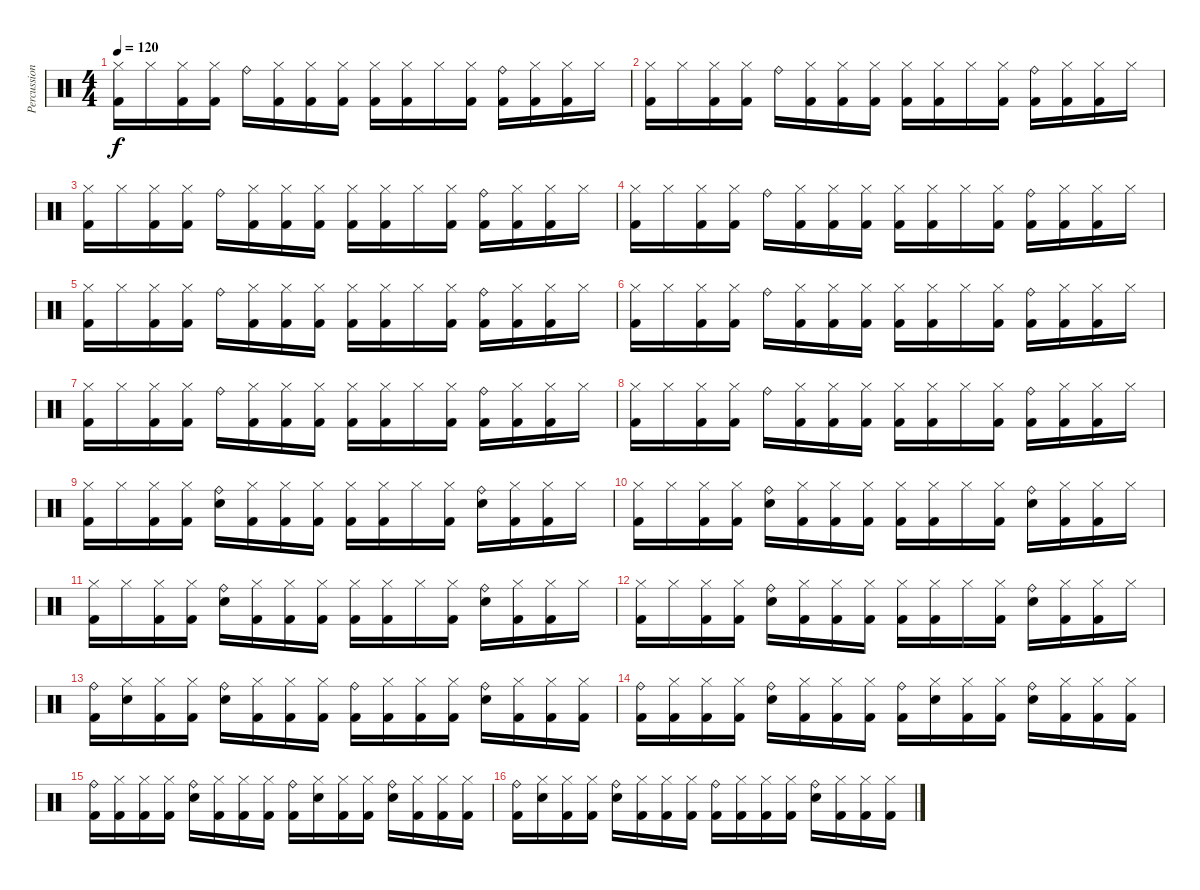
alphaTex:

\track ("Percussions" "Percussion") {instrument percussion}
\staff {score}
\articulation defaults
\ts (4 4)
\tempo 120
\clef neutral
\ks c
("Hi-Hat (closed)" "Kick (hit) 2").16{dy f} "Hi-Hat (closed)".16 ("Hi-Hat (closed)" "Kick (hit) 2").16 ("Hi-Hat (closed)" "Kick (hit) 2").16 "Ride (bell)".16 ("Hi-Hat (closed)" "Kick (hit) 2").16 ("Hi-Hat (closed)" "Kick (hit) 2").16 ("Hi-Hat (closed)" "Kick (hit) 2").16 ("Hi-Hat (closed)" "Kick (hit) 2").16 ("Hi-Hat (closed)" "Kick (hit) 2").16 "Hi-Hat (closed)".16 ("Hi-Hat (closed)" "Kick (hit) 2").16 ("Ride (bell)" "Kick (hit) 2").16 ("Hi-Hat (closed)" "Kick (hit) 2").16 ("Hi-Hat (closed)" "Kick (hit) 2").16 "Hi-Hat (closed)".16 |
("Hi-Hat (closed)" "Kick (hit) 2").16 "Hi-Hat (closed)".16 ("Hi-Hat (closed)" "Kick (hit) 2").16 ("Hi-Hat (closed)" "Kick (hit) 2").16 "Ride (bell)".16 ("Hi-Hat (closed)" "Kick (hit) 2").16 ("Hi-Hat (closed)" "Kick (hit) 2").16 ("Hi-Hat (closed)" "Kick (hit) 2").16 ("Hi-Hat (closed)" "Kick (hit) 2").16 ("Hi-Hat (closed)" "Kick (hit) 2").16 "Hi-Hat (closed)".16 ("Hi-Hat (closed)" "Kick (hit) 2").16 ("Ride (bell)" "Kick (hit) 2").16 ("Hi-Hat (closed)" "Kick (hit) 2").16 ("Hi-Hat (closed)" "Kick (hit) 2").16 "Hi-Hat (closed)".16 |
("Hi-Hat (closed)" "Kick (hit) 2").16 "Hi-Hat (closed)".16 ("Hi-Hat (closed)" "Kick (hit) 2").16 ("Hi-Hat (closed)" "Kick (hit) 2").16 "Ride (bell)".16 ("Hi-Hat (closed)" "Kick (hit) 2").16 ("Hi-Hat (closed)" "Kick (hit) 2").16 ("Hi-Hat (closed)" "Kick (hit) 2").16 ("Hi-Hat (closed)" "Kick (hit) 2").16 ("Hi-Hat (closed)" "Kick (hit) 2").16 "Hi-Hat (closed)".16 ("Hi-Hat (closed)" "Kick (hit) 2").16 ("Ride (bell)" "Kick (hit) 2").16 ("Hi-Hat (closed)" "Kick (hit) 2").16 ("Hi-Hat (closed)" "Kick (hit) 2").16 "Hi-Hat (closed)".16 |
("Hi-Hat (closed)" "Kick (hit) 2").16 "Hi-Hat (closed)".16 ("Hi-Hat (closed)" "Kick (hit) 2").16 ("Hi-Hat (closed)" "Kick (hit) 2").16 "Ride (bell)".16 ("Hi-Hat (closed)" "Kick (hit) 2").16 ("Hi-Hat (closed)" "Kick (hit) 2").16 ("Hi-Hat (closed)" "Kick (hit) 2").16 ("Hi-Hat (closed)" "Kick (hit) 2").16 ("Hi-Hat (closed)" "Kick (hit) 2").16 "Hi-Hat (closed)".16 ("Hi-Hat (closed)" "Kick (hit) 2").16 ("Ride (bell)" "Kick (hit) 2").16 ("Hi-Hat (closed)" "Kick (hit) 2").16 ("Hi-Hat (closed)" "Kick (hit) 2").16 "Hi-Hat (closed)".16 |
("Hi-Hat (closed)" "Kick (hit) 2").16 "Hi-Hat (closed)".16 ("Hi-Hat (closed)" "Kick (hit) 2").16 ("Hi-Hat (closed)" "Kick (hit) 2").16 "Ride (bell)".16 ("Hi-Hat (closed)" "Kick (hit) 2").16 ("Hi-Hat (closed)" "Kick (hit) 2").16 ("Hi-Hat (closed)" "Kick (hit) 2").16 ("Hi-Hat (closed)" "Kick (hit) 2").16 ("Hi-Hat (closed)" "Kick (hit) 2").16 "Hi-Hat (closed)".16 ("Hi-Hat (closed)" "Kick (hit) 2").16 ("Ride (bell)" "Kick (hit) 2").16 ("Hi-Hat (closed)" "Kick (hit) 2").16 ("Hi-Hat (closed)" "Kick (hit) 2").16 "Hi-Hat (closed)".16 |
("Hi-Hat (closed)" "Kick (hit) 2").16 "Hi-Hat (closed)".16 ("Hi-Hat (closed)" "Kick (hit) 2").16 ("Hi-Hat (closed)" "Kick (hit) 2").16 "Ride (bell)".16 ("Hi-Hat (closed)" "Kick (hit) 2").16 ("Hi-Hat (closed)" "Kick (hit) 2").16 ("Hi-Hat (closed)" "Kick (hit) 2").16 ("Hi-Hat (closed)" "Kick (hit) 2").16 ("Hi-Hat (closed)" "Kick (hit) 2").16 "Hi-Hat (closed)".16 ("Hi-Hat (closed)" "Kick (hit) 2").16 ("Ride (bell)" "Kick (hit) 2").16 ("Hi-Hat (closed)" "Kick (hit) 2").16 ("Hi-Hat (closed)" "Kick (hit) 2").16 "Hi-Hat (closed)".16 |
("Hi-Hat (closed)" "Kick (hit) 2").16 "Hi-Hat (closed)".16 ("Hi-Hat (closed)" "Kick (hit) 2").16 ("Hi-Hat (closed)" "Kick (hit) 2").16 "Ride (bell)".16 ("Hi-Hat (closed)" "Kick (hit) 2").16 ("Hi-Hat (closed)" "Kick (hit) 2").16 ("Hi-Hat (closed)" "Kick (hit) 2").16 ("Hi-Hat (closed)" "Kick (hit) 2").16 ("Hi-Hat (closed)" "Kick (hit) 2").16 "Hi-Hat (closed)".16 ("Hi-Hat (closed)" "Kick (hit) 2").16 ("Ride (bell)" "Kick (hit) 2").16 ("Hi-Hat (closed)" "Kick (hit) 2").16 ("Hi-Hat (closed)" "Kick (hit) 2").16 "Hi-Hat (closed)".16 |
("Hi-Hat (closed)" "Kick (hit) 2").16 "Hi-Hat (closed)".16 ("Hi-Hat (closed)" "Kick (hit) 2").16 ("Hi-Hat (closed)" "Kick (hit) 2").16 "Ride (bell)".16 ("Hi-Hat (closed)" "Kick (hit) 2").16 ("Hi-Hat (closed)" "Kick (hit) 2").16 ("Hi-Hat (closed)" "Kick (hit) 2").16 ("Hi-Hat (closed)" "Kick (hit) 2").16 ("Hi-Hat (closed)" "Kick (hit) 2").16 "Hi-Hat (closed)".16 ("Hi-Hat (closed)" "Kick (hit) 2").16 ("Ride (bell)" "Kick (hit) 2").16 ("Hi-Hat (closed)" "Kick (hit) 2").16 ("Hi-Hat (closed)" "Kick (hit) 2").16 "Hi-Hat (closed)".16 |
("Hi-Hat (closed)" "Kick (hit) 2").16 "Hi-Hat (closed)".16 ("Hi-Hat (closed)" "Kick (hit) 2").16 ("Hi-Hat (closed)" "Kick (hit) 2").16 ("Ride (bell)" "Electric Snare (hit)").16 ("Hi-Hat (closed)" "Kick (hit) 2").16 ("Hi-Hat (closed)" "Kick (hit) 2").16 ("Hi-Hat (closed)" "Kick (hit) 2").16 ("Hi-Hat (closed)" "Kick (hit) 2").16 ("Hi-Hat (closed)" "Kick (hit) 2").16 "Hi-Hat (closed)".16 ("Hi-Hat (closed)" "Kick (hit) 2").16 ("Ride (bell)" "Electric Snare (hit)").16 ("Hi-Hat (closed)" "Kick (hit) 2").16 ("Hi-Hat (closed)" "Kick (hit) 2").16 "Hi-Hat (closed)".16 |
("Hi-Hat (closed)" "Kick (hit) 2").16 "Hi-Hat (closed)".16 ("Hi-Hat (closed)" "Kick (hit) 2").16 ("Hi-Hat (closed)" "Kick (hit) 2").16 ("Ride (bell)" "Electric Snare (hit)").16 ("Hi-Hat (closed)" "Kick (hit) 2").16 ("Hi-Hat (closed)" "Kick (hit) 2").16 ("Hi-Hat (closed)" "Kick (hit) 2").16 ("Hi-Hat (closed)" "Kick (hit) 2").16 ("Hi-Hat (closed)" "Kick (hit) 2").16 "Hi-Hat (closed)".16 ("Hi-Hat (closed)" "Kick (hit) 2").16 ("Ride (bell)" "Electric Snare (hit)").16 ("Hi-Hat (closed)" "Kick (hit) 2").16 ("Hi-Hat (closed)" "Kick (hit) 2").16 "Hi-Hat (closed)".16 |
("Hi-Hat (closed)" "Kick (hit) 2").16 "Hi-Hat (closed)".16 ("Hi-Hat (closed)" "Kick (hit) 2").16 ("Hi-Hat (closed)" "Kick (hit) 2").16 ("Ride (bell)" "Electric Snare (hit)").16 ("Hi-Hat (closed)" "Kick (hit) 2").16 ("Hi-Hat (closed)" "Kick (hit) 2").16 ("Hi-Hat (closed)" "Kick (hit) 2").16 ("Hi-Hat (closed)" "Kick (hit) 2").16 ("Hi-Hat (closed)" "Kick (hit) 2").16 "Hi-Hat (closed)".16 ("Hi-Hat (closed)" "Kick (hit) 2").16 ("Ride (bell)" "Electric Snare (hit)").16 ("Hi-Hat (closed)" "Kick (hit) 2").16 ("Hi-Hat (closed)" "Kick (hit) 2").16 "Hi-Hat (closed)".16 |
("Hi-Hat (closed)" "Kick (hit) 2").16 "Hi-Hat (closed)".16 ("Hi-Hat (closed)" "Kick (hit) 2").16 ("Hi-Hat (closed)" "Kick (hit) 2").16 ("Ride (bell)" "Electric Snare (hit)").16 ("Hi-Hat (closed)" "Kick (hit) 2").16 ("Hi-Hat (closed)" "Kick (hit) 2").16 ("Hi-Hat (closed)" "Kick (hit) 2").16 ("Hi-Hat (closed)" "Kick (hit) 2").16 ("Hi-Hat (closed)" "Kick (hit) 2").16 "Hi-Hat (closed)".16 ("Hi-Hat (closed)" "Kick (hit) 2").16 ("Ride (bell)" "Electric Snare (hit)").16 ("Hi-Hat (closed)" "Kick (hit) 2").16 ("Hi-Hat (closed)" "Kick (hit) 2").16 "Hi-Hat (closed)".16 |
("Ride (bell)" "Kick (hit) 2").16 ("Hi-Hat (closed)" "Electric Snare (hit)").16 ("Hi-Hat (closed)" "Kick (hit) 2").16 ("Hi-Hat (closed)" "Kick (hit) 2").16 ("Ride (bell)" "Electric Snare (hit)").16 ("Hi-Hat (closed)" "Kick (hit) 2").16 ("Hi-Hat (closed)" "Kick (hit) 2").16 ("Hi-Hat (closed)" "Kick (hit) 2").16 ("Ride (bell)" "Kick (hit) 2").16 ("Hi-Hat (closed)" "Kick (hit) 2").16 ("Hi-Hat (closed)" "Kick (hit) 2").16 ("Hi-Hat (closed)" "Kick (hit) 2").16 ("Ride (bell)" "Electric Snare (hit)").16 ("Hi-Hat (closed)" "Kick (hit) 2").16 ("Hi-Hat (closed)" "Kick (hit) 2").16 ("Hi-Hat (closed)" "Kick (hit) 2").16 |
("Ride (bell)" "Kick (hit) 2").16 ("Hi-Hat (closed)" "Kick (hit) 2").16 ("Hi-Hat (closed)" "Kick (hit) 2").16 ("Hi-Hat (closed)" "Kick (hit) 2").16 ("Ride (bell)" "Electric Snare (hit)").16 ("Hi-Hat (closed)" "Kick (hit) 2").16 ("Hi-Hat (closed)" "Kick (hit) 2").16 ("Hi-Hat (closed)" "Kick (hit) 2").16 ("Ride (bell)" "Kick (hit) 2").16 ("Hi-Hat (closed)" "Electric Snare (hit)").16 ("Hi-Hat (closed)" "Kick (hit) 2").16 ("Hi-Hat (closed)" "Kick (hit) 2").16 ("Ride (bell)" "Electric Snare (hit)").16 ("Hi-Hat (closed)" "Kick (hit) 2").16 ("Hi-Hat (closed)" "Kick (hit) 2").16 ("Hi-Hat (closed)" "Kick (hit) 2").16 |
("Ride (bell)" "Kick (hit) 2").16 ("Hi-Hat (closed)" "Kick (hit) 2").16 ("Hi-Hat (closed)" "Kick (hit) 2").16 ("Hi-Hat (closed)" "Kick (hit) 2").16 ("Ride (bell)" "Electric Snare (hit)").16 ("Hi-Hat (closed)" "Kick (hit) 2").16 ("Hi-Hat (closed)" "Kick (hit) 2").16 ("Hi-Hat (closed)" "Kick (hit) 2").16 ("Ride (bell)" "Kick (hit) 2").16 ("Hi-Hat (closed)" "Electric Snare (hit)").16 ("Hi-Hat (closed)" "Kick (hit) 2").16 ("Hi-Hat (closed)" "Kick (hit) 2").16 ("Ride (bell)" "Electric Snare (hit)").16 ("Hi-Hat (closed)" "Kick (hit) 2").16 ("Hi-Hat (closed)" "Kick (hit) 2").16 ("Hi-Hat (closed)" "Kick (hit) 2").16 |
("Ride (bell)" "Kick (hit) 2").16 ("Hi-Hat (closed)" "Electric Snare (hit)").16 ("Hi-Hat (closed)" "Kick (hit) 2").16 ("Hi-Hat (closed)" "Kick (hit) 2").16 ("Ride (bell)" "Electric Snare (hit)").16 ("Hi-Hat (closed)" "Kick (hit) 2").16 ("Hi-Hat (closed)" "Kick (hit) 2").16 ("Hi-Hat (closed)" "Kick (hit) 2").16 ("Ride (bell)" "Kick (hit) 2").16 ("Hi-Hat (closed)" "Kick (hit) 2").16 ("Hi-Hat (closed)" "Kick (hit) 2").16 ("Hi-Hat (closed)" "Kick (hit) 2").16 ("Ride (bell)" "Electric Snare (hit)").16 ("Hi-Hat (closed)" "Kick (hit) 2").16 ("Hi-Hat (closed)" "Kick (hit) 2").16 ("Hi-Hat (closed)" "Kick (hit) 2").16
